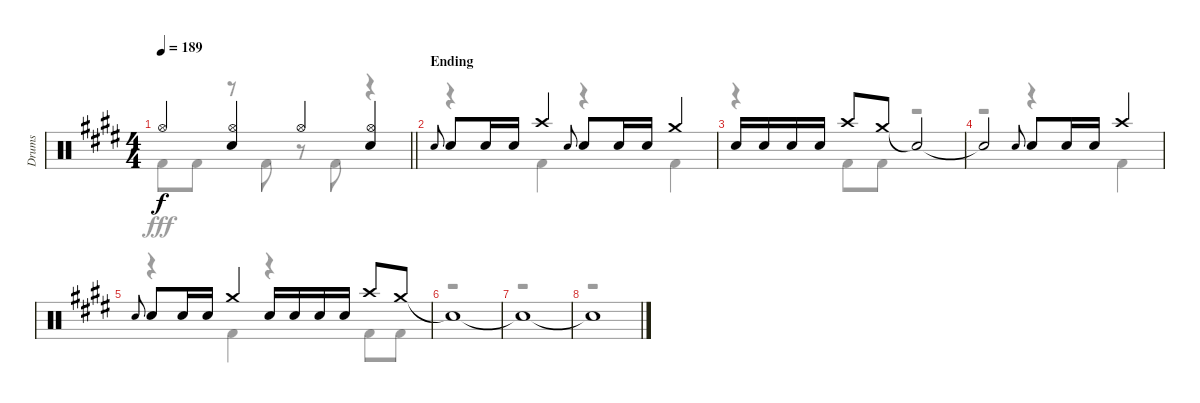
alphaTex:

\track ("Drums" "Drums") {instrument percussion}
\staff {score}
\articulation defaults
\voice
\ts (4 4)
\tempo 189
\clef neutral
\barLineRight lightlight
\ks e "Hi-Hat (open)".4{dy f}
("Hi-Hat (open)" "Snare (hit) 2").4 "Hi-Hat (open)".4 ("Hi-Hat (open)" "Snare (hit) 2").4 |
\section ("" "Ending")
"Snare (hit) 2".8{gr onbeat} "Snare (hit) 2".8 "Snare (hit) 2".16 "Snare (hit) 2".16 "Crash high (hit)".4 "Snare (hit) 2".8{gr onbeat} "Snare (hit) 2".8 "Snare (hit) 2".16 "Snare (hit) 2".16 "Crash medium (hit)".4 |
"Snare (hit) 2".16 "Snare (hit) 2".16 "Snare (hit) 2".16 "Snare (hit) 2".16 "Crash high (hit)".8 "Crash medium (hit)".8 "Snare (hit)"{t}.2 |
"Snare (hit)"{t}.2 "Snare (hit) 2".8{gr onbeat} "Snare (hit) 2".8 "Snare (hit) 2".16 "Snare (hit) 2".16 "Crash high (hit)".4 |
"Snare (hit) 2".8{gr onbeat} "Snare (hit) 2".8 "Snare (hit) 2".16 "Snare (hit) 2".16 "Crash medium (hit)".4 "Snare (hit) 2".16 "Snare (hit) 2".16 "Snare (hit) 2".16 "Snare (hit) 2".16 "Crash high (hit)".8 "Crash medium (hit)".8 |
"Snare (hit)"{t}.1 |
"Snare (hit)"{t}.1 |
"Snare (hit)"{t}.1
\voice
\clef neutral
\ottava regular
\simile none
\barLineRight lightlight
\ks e "Kick (hit) 2".8{dy fff} "Kick (hit) 2".8
r.8 "Kick (hit) 2".8 r.8 "Kick (hit) 2".8 r.4 |
r.4 "Kick (hit) 2".4 r.4 "Kick (hit) 2".4 |
r.4 "Kick (hit) 2".8 "Kick (hit) 2".8 r.2 |
r.2 r.4 "Kick (hit) 2".4 |
r.4 "Kick (hit) 2".4 r.4 "Kick (hit) 2".8 "Kick (hit) 2".8 |
r.1 |
r.1 |
r.1
